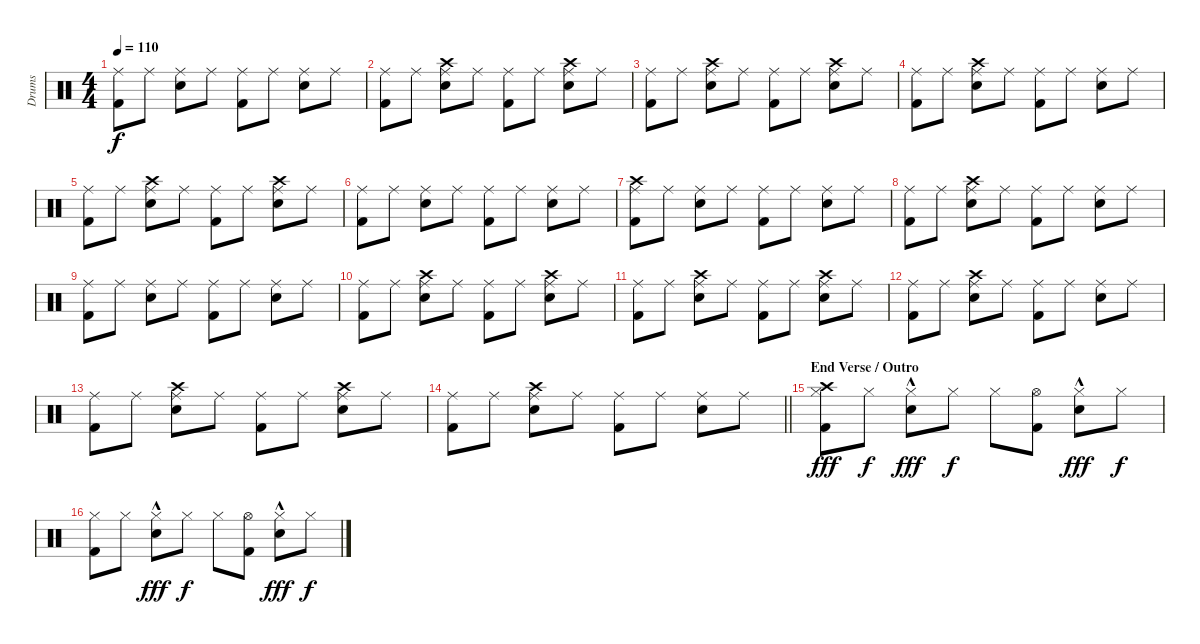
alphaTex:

\track ("Drums" "Drums") {instrument percussion}
\staff {score}
\articulation defaults
\ts (4 4)
\tempo 110
\clef neutral
\ks c
("Ride (middle)" "Kick (hit) 2").8{dy f} "Ride (middle)".8 ("Ride (middle)" "Snare (hit) 2").8 "Ride (middle)".8 ("Ride (middle)" "Kick (hit) 2").8 "Ride (middle)".8 ("Ride (middle)" "Snare (hit) 2").8 "Ride (middle)".8 |
("Ride (middle)" "Kick (hit) 2").8 "Ride (middle)".8 ("Crash high (hit)" "Ride (middle)" "Snare (hit) 2").8 "Ride (middle)".8 ("Ride (middle)" "Kick (hit) 2").8 "Ride (middle)".8 ("Crash high (hit)" "Ride (middle)" "Snare (hit) 2").8 "Ride (middle)".8 |
("Ride (middle)" "Kick (hit) 2").8 "Ride (middle)".8 ("Crash high (hit)" "Ride (middle)" "Snare (hit) 2").8 "Ride (middle)".8 ("Ride (middle)" "Kick (hit) 2").8 "Ride (middle)".8 ("Crash high (hit)" "Ride (middle)" "Snare (hit) 2").8 "Ride (middle)".8 |
("Ride (middle)" "Kick (hit) 2").8 "Ride (middle)".8 ("Crash high (hit)" "Ride (middle)" "Snare (hit) 2").8 "Ride (middle)".8 ("Ride (middle)" "Kick (hit) 2").8 "Ride (middle)".8 ("Ride (middle)" "Snare (hit) 2").8 "Ride (middle)".8 |
("Ride (middle)" "Kick (hit) 2").8 "Ride (middle)".8 ("Crash high (hit)" "Ride (middle)" "Snare (hit) 2").8 "Ride (middle)".8 ("Ride (middle)" "Kick (hit) 2").8 "Ride (middle)".8 ("Crash high (hit)" "Ride (middle)" "Snare (hit) 2").8 "Ride (middle)".8 |
("Ride (middle)" "Kick (hit) 2").8 "Ride (middle)".8 ("Ride (middle)" "Snare (hit) 2").8 "Ride (middle)".8 ("Ride (middle)" "Kick (hit) 2").8 "Ride (middle)".8 ("Ride (middle)" "Snare (hit) 2").8 "Ride (middle)".8 |
("Crash high (hit)" "Ride (middle)" "Kick (hit) 2").8 "Ride (middle)".8 ("Ride (middle)" "Snare (hit) 2").8 "Ride (middle)".8 ("Ride (middle)" "Kick (hit) 2").8 "Ride (middle)".8 ("Ride (middle)" "Snare (hit) 2").8 "Ride (middle)".8 |
("Ride (middle)" "Kick (hit) 2").8 "Ride (middle)".8 ("Crash high (hit)" "Ride (middle)" "Snare (hit) 2").8 "Ride (middle)".8 ("Ride (middle)" "Kick (hit) 2").8 "Ride (middle)".8 ("Ride (middle)" "Snare (hit) 2").8 "Ride (middle)".8 |
("Ride (middle)" "Kick (hit) 2").8 "Ride (middle)".8 ("Ride (middle)" "Snare (hit) 2").8 "Ride (middle)".8 ("Ride (middle)" "Kick (hit) 2").8 "Ride (middle)".8 ("Ride (middle)" "Snare (hit) 2").8 "Ride (middle)".8 |
("Ride (middle)" "Kick (hit) 2").8 "Ride (middle)".8 ("Crash high (hit)" "Ride (middle)" "Snare (hit) 2").8 "Ride (middle)".8 ("Ride (middle)" "Kick (hit) 2").8 "Ride (middle)".8 ("Crash high (hit)" "Ride (middle)" "Snare (hit) 2").8 "Ride (middle)".8 |
("Ride (middle)" "Kick (hit) 2").8 "Ride (middle)".8 ("Crash high (hit)" "Ride (middle)" "Snare (hit) 2").8 "Ride (middle)".8 ("Ride (middle)" "Kick (hit) 2").8 "Ride (middle)".8 ("Crash high (hit)" "Ride (middle)" "Snare (hit) 2").8 "Ride (middle)".8 |
("Ride (middle)" "Kick (hit) 2").8 "Ride (middle)".8 ("Crash high (hit)" "Ride (middle)" "Snare (hit) 2").8 "Ride (middle)".8 ("Ride (middle)" "Kick (hit) 2").8 "Ride (middle)".8 ("Ride (middle)" "Snare (hit) 2").8 "Ride (middle)".8 |
("Ride (middle)" "Kick (hit) 2").8 "Ride (middle)".8 ("Crash high (hit)" "Ride (middle)" "Snare (hit) 2").8 "Ride (middle)".8 ("Ride (middle)" "Kick (hit) 2").8 "Ride (middle)".8 ("Crash high (hit)" "Ride (middle)" "Snare (hit) 2").8 "Ride (middle)".8 |
\barLineRight lightlight
("Ride (middle)" "Kick (hit) 2").8 "Ride (middle)".8 ("Crash high (hit)" "Ride (middle)" "Snare (hit) 2").8 "Ride (middle)".8 ("Ride (middle)" "Kick (hit) 2").8 "Ride (middle)".8 ("Ride (middle)" "Snare (hit) 2").8 "Ride (middle)".8 |
\section ("" "End Verse / Outro")
("Crash high (hit)" "Hi-Hat (closed)" "Kick (hit) 2").8{dy fff} "Hi-Hat (closed)".8{dy f} ("Hi-Hat (closed)"{hac} "Snare (hit) 2").8{dy fff} "Hi-Hat (closed)".8{dy f} "Hi-Hat (closed)".8 ("Hi-Hat (open)" "Kick (hit) 2").8 ("Hi-Hat (closed)"{hac} "Snare (hit) 2").8{dy fff} "Hi-Hat (closed)".8{dy f} |
("Hi-Hat (closed)" "Kick (hit) 2").8 "Hi-Hat (closed)".8 ("Hi-Hat (closed)"{hac} "Snare (hit) 2").8{dy fff} "Hi-Hat (closed)".8{dy f} "Hi-Hat (closed)".8 ("Hi-Hat (open)" "Kick (hit) 2").8 ("Hi-Hat (closed)"{hac} "Snare (hit) 2").8{dy fff} "Hi-Hat (closed)".8{dy f}
